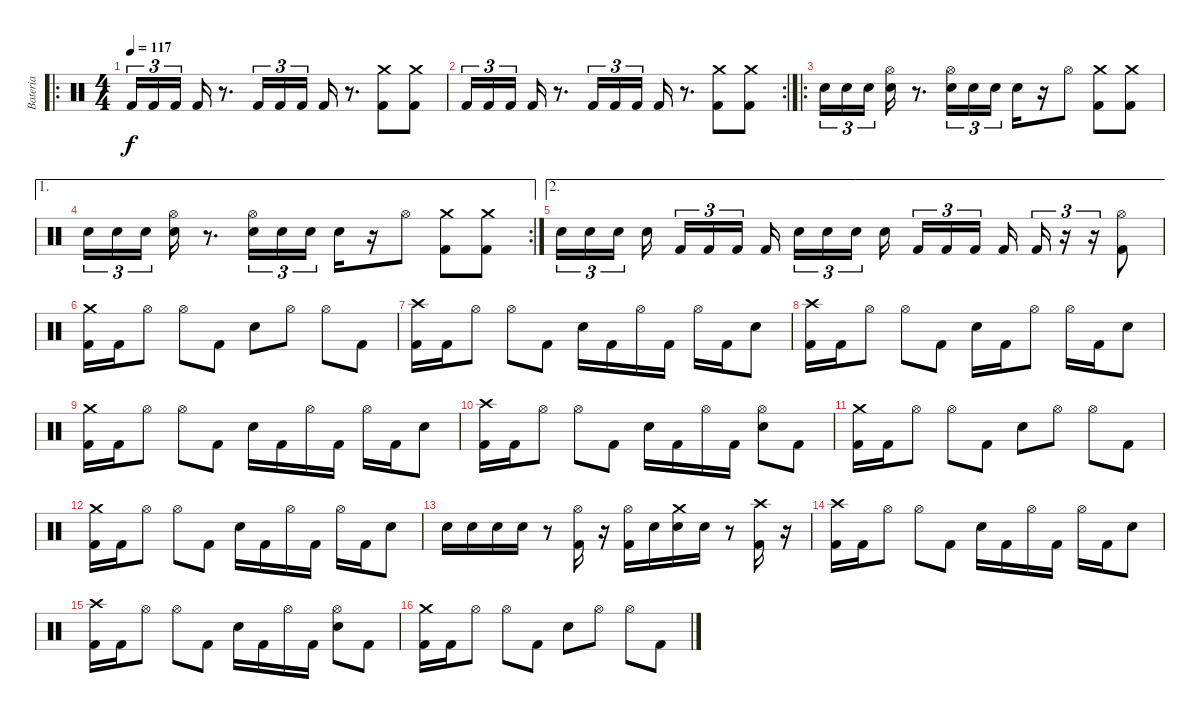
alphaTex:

\track ("Bateria" "Bateria") {instrument percussion}
\staff {score}
\articulation defaults
\ro
\ts (4 4)
\tempo 117
\clef neutral
\ks c "Kick (hit) 2".16{tu (3 2) dy f} "Kick (hit) 2".16{tu (3 2)} "Kick (hit) 2".16{tu (3 2)} "Kick (hit) 2".16
r.8{d} "Kick (hit) 2".16{tu (3 2)} "Kick (hit) 2".16{tu (3 2)} "Kick (hit) 2".16{tu (3 2)} "Kick (hit) 2".16 r.8{d} ("Crash medium (hit)" "Kick (hit) 2").8 ("Crash medium (hit)" "Kick (hit) 2").8 |
\rc 2 "Kick (hit) 2".16{tu (3 2)} "Kick (hit) 2".16{tu (3 2)} "Kick (hit) 2".16{tu (3 2)} "Kick (hit) 2".16
r.8{d} "Kick (hit) 2".16{tu (3 2)} "Kick (hit) 2".16{tu (3 2)} "Kick (hit) 2".16{tu (3 2)} "Kick (hit) 2".16 r.8{d} ("Crash medium (hit)" "Kick (hit) 2").8 ("Crash medium (hit)" "Kick (hit) 2").8 |
\ro "Electric Snare (hit)".16{tu (3 2)} "Electric Snare (hit)".16{tu (3 2)} "Electric Snare (hit)".16{tu (3 2)}
("Hi-Hat (open)" "Electric Snare (hit)").16 r.8{d} ("Hi-Hat (open)" "Electric Snare (hit)").16{tu (3 2)} "Electric Snare (hit)".16{tu (3 2)} "Electric Snare (hit)".16{tu (3 2)} "Electric Snare (hit)".16 r.16 "Hi-Hat (open)".8 ("Crash medium (hit)" "Kick (hit) 2").8 ("Crash medium (hit)" "Kick (hit) 2").8 |
\ae 1
\rc 2 "Electric Snare (hit)".16{tu (3 2)} "Electric Snare (hit)".16{tu (3 2)} "Electric Snare (hit)".16{tu (3 2)}
("Hi-Hat (open)" "Electric Snare (hit)").16 r.8{d} ("Hi-Hat (open)" "Electric Snare (hit)").16{tu (3 2)} "Electric Snare (hit)".16{tu (3 2)} "Electric Snare (hit)".16{tu (3 2)} "Electric Snare (hit)".16 r.16 "Hi-Hat (open)".8 ("Crash medium (hit)" "Kick (hit) 2").8 ("Crash medium (hit)" "Kick (hit) 2").8 |
\ae 2 "Electric Snare (hit)".16{tu (3 2)} "Electric Snare (hit)".16{tu (3 2)} "Electric Snare (hit)".16{tu (3 2)} "Electric Snare (hit)".16 "Kick (hit) 2".16{tu (3 2)} "Kick (hit) 2".16{tu (3 2)} "Kick (hit) 2".16{tu (3 2)} "Kick (hit) 2".16 "Electric Snare (hit)".16{tu (3 2)} "Electric Snare (hit)".16{tu (3 2)} "Electric Snare (hit)".16{tu (3 2)} "Electric Snare (hit)".16 "Kick (hit) 2".16{tu (3 2)} "Kick (hit) 2".16{tu (3 2)} "Kick (hit) 2".16{tu (3 2)} "Kick (hit) 2".16 "Kick (hit) 2".16{tu (3 2)}
r.16{tu (3 2)} r.16{tu (3 2)} ("Hi-Hat (open)" "Kick (hit) 2").8 |
("Crash medium (hit)" "Kick (hit) 2").16 "Kick (hit) 2".16 "Hi-Hat (open)".8 "Hi-Hat (open)".8 "Kick (hit) 2".8 "Electric Snare (hit)".8 "Hi-Hat (open)".8 "Hi-Hat (open)".8 "Kick (hit) 2".8 |
("Crash high (hit)" "Kick (hit) 2").16 "Kick (hit) 2".16 "Hi-Hat (open)".8 "Hi-Hat (open)".8 "Kick (hit) 2".8 "Electric Snare (hit)".16 "Kick (hit) 2".16 "Hi-Hat (open)".16 "Kick (hit) 2".16 "Hi-Hat (open)".16 "Kick (hit) 2".16 "Electric Snare (hit)".8 |
("Crash high (hit)" "Kick (hit) 2").16 "Kick (hit) 2".16 "Hi-Hat (open)".8 "Hi-Hat (open)".8 "Kick (hit) 2".8 "Electric Snare (hit)".16 "Kick (hit) 2".16 "Hi-Hat (open)".8 "Hi-Hat (open)".16 "Kick (hit) 2".16 "Electric Snare (hit)".8 |
("Crash medium (hit)" "Kick (hit) 2").16 "Kick (hit) 2".16 "Hi-Hat (open)".8 "Hi-Hat (open)".8 "Kick (hit) 2".8 "Electric Snare (hit)".16 "Kick (hit) 2".16 "Hi-Hat (open)".16 "Kick (hit) 2".16 "Hi-Hat (open)".16 "Kick (hit) 2".16 "Electric Snare (hit)".8 |
("Crash high (hit)" "Kick (hit) 2").16 "Kick (hit) 2".16 "Hi-Hat (open)".8 "Hi-Hat (open)".8 "Kick (hit) 2".8 "Electric Snare (hit)".16 "Kick (hit) 2".16 "Hi-Hat (open)".16 "Kick (hit) 2".16 ("Hi-Hat (open)" "Electric Snare (hit)").8 "Kick (hit) 2".8 |
("Crash medium (hit)" "Kick (hit) 2").16 "Kick (hit) 2".16 "Hi-Hat (open)".8 "Hi-Hat (open)".8 "Kick (hit) 2".8 "Electric Snare (hit)".8 "Hi-Hat (open)".8 "Hi-Hat (open)".8 "Kick (hit) 2".8 |
("Crash medium (hit)" "Kick (hit) 2").16 "Kick (hit) 2".16 "Hi-Hat (open)".8 "Hi-Hat (open)".8 "Kick (hit) 2".8 "Electric Snare (hit)".16 "Kick (hit) 2".16 "Hi-Hat (open)".16 "Kick (hit) 2".16 "Hi-Hat (open)".16 "Kick (hit) 2".16 "Electric Snare (hit)".8 |
"Electric Snare (hit)".16 "Electric Snare (hit)".16 "Electric Snare (hit)".16 "Electric Snare (hit)".16 r.8 ("Hi-Hat (open)" "Kick (hit) 2").16 r.16 ("Hi-Hat (open)" "Kick (hit) 2").16 "Electric Snare (hit)".16 ("Crash medium (hit)" "Electric Snare (hit)").16 "Electric Snare (hit)".16 r.8 ("Crash high (hit)" "Kick (hit) 2").16 r.16 |
("Crash high (hit)" "Kick (hit) 2").16 "Kick (hit) 2".16 "Hi-Hat (open)".8 "Hi-Hat (open)".8 "Kick (hit) 2".8 "Electric Snare (hit)".16 "Kick (hit) 2".16 "Hi-Hat (open)".16 "Kick (hit) 2".16 "Hi-Hat (open)".16 "Kick (hit) 2".16 "Electric Snare (hit)".8 |
("Crash high (hit)" "Kick (hit) 2").16 "Kick (hit) 2".16 "Hi-Hat (open)".8 "Hi-Hat (open)".8 "Kick (hit) 2".8 "Electric Snare (hit)".16 "Kick (hit) 2".16 "Hi-Hat (open)".16 "Kick (hit) 2".16 ("Hi-Hat (open)" "Electric Snare (hit)").8 "Kick (hit) 2".8 |
("Crash medium (hit)" "Kick (hit) 2").16 "Kick (hit) 2".16 "Hi-Hat (open)".8 "Hi-Hat (open)".8 "Kick (hit) 2".8 "Electric Snare (hit)".8 "Hi-Hat (open)".8 "Hi-Hat (open)".8 "Kick (hit) 2".8
